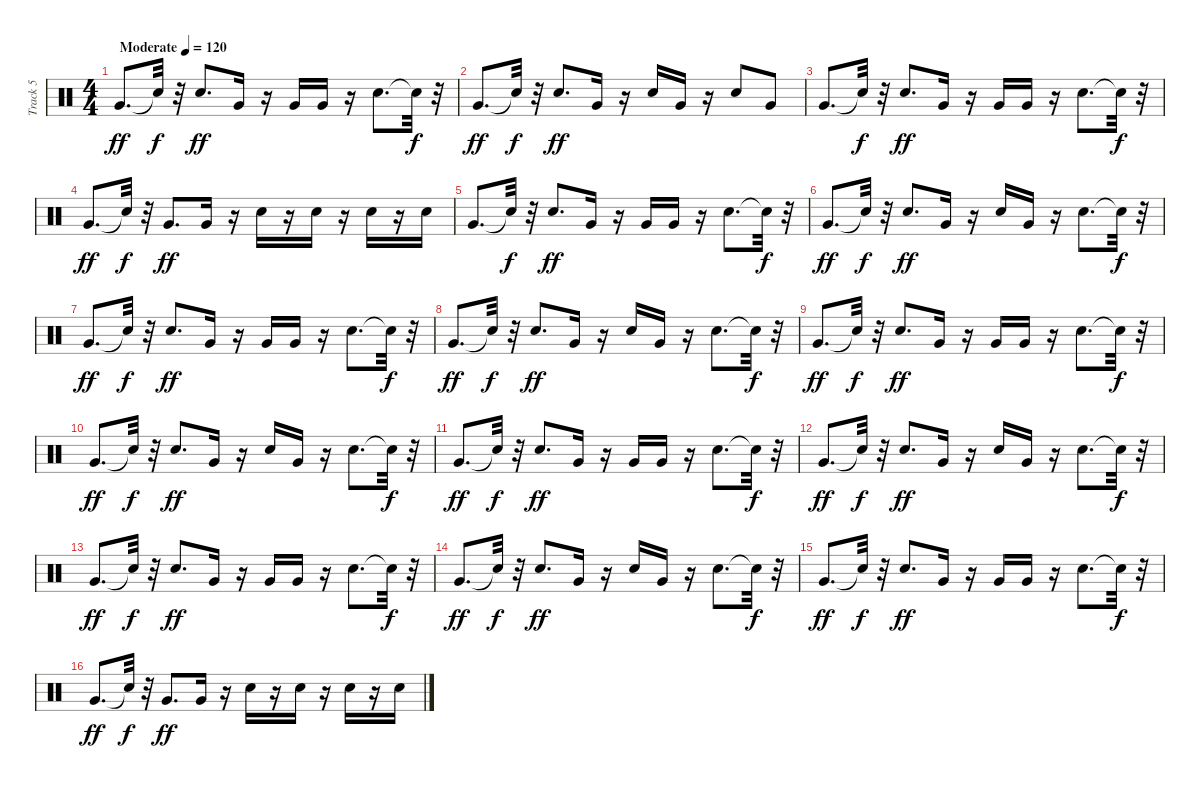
\track ("Track 5" "Track 5") {instrument percussion}
\staff {score}
\articulation defaults
\ts (4 4)
\tempo (120 "Moderate")
\clef neutral
\ks c "Very Low Tom (hit)".8{d dy ff} "Snare (hit)"{t}.32{dy f}
r.32 "Snare (hit) 2".8{d dy ff} "Very Low Tom (hit)".16 r.16 "Very Low Tom (hit)".16 "Very Low Tom (hit)".16 r.16 "Snare (hit) 2".8{d} "Snare (hit)"{t}.32{dy f} r.32 |
"Very Low Tom (hit)".8{d dy ff} "Snare (hit)"{t}.32{dy f} r.32 "Snare (hit) 2".8{d dy ff} "Very Low Tom (hit)".16 r.16 "Snare (hit) 2".16 "Very Low Tom (hit)".16 r.16 "Snare (hit) 2".8 "Very Low Tom (hit)".8 |
"Very Low Tom (hit)".8{d} "Snare (hit)"{t}.32{dy f} r.32 "Snare (hit) 2".8{d dy ff} "Very Low Tom (hit)".16 r.16 "Very Low Tom (hit)".16 "Very Low Tom (hit)".16 r.16 "Snare (hit) 2".8{d} "Snare (hit)"{t}.32{dy f} r.32 |
"Very Low Tom (hit)".8{d dy ff} "Snare (hit)"{t}.32{dy f} r.32 "Very Low Tom (hit)".8{d dy ff} "Very Low Tom (hit)".16 r.16 "Snare (hit) 2".16 r.16 "Snare (hit) 2".16 r.16 "Snare (hit) 2".16 r.16 "Snare (hit) 2".16 |
"Very Low Tom (hit)".8{d} "Snare (hit)"{t}.32{dy f} r.32 "Snare (hit) 2".8{d dy ff} "Very Low Tom (hit)".16 r.16 "Very Low Tom (hit)".16 "Very Low Tom (hit)".16 r.16 "Snare (hit) 2".8{d} "Snare (hit)"{t}.32{dy f} r.32 |
"Very Low Tom (hit)".8{d dy ff} "Snare (hit)"{t}.32{dy f} r.32 "Snare (hit) 2".8{d dy ff} "Very Low Tom (hit)".16 r.16 "Snare (hit) 2".16 "Very Low Tom (hit)".16 r.16 "Snare (hit) 2".8{d} "Snare (hit)"{t}.32{dy f} r.32 |
"Very Low Tom (hit)".8{d dy ff} "Snare (hit)"{t}.32{dy f} r.32 "Snare (hit) 2".8{d dy ff} "Very Low Tom (hit)".16 r.16 "Very Low Tom (hit)".16 "Very Low Tom (hit)".16 r.16 "Snare (hit) 2".8{d} "Snare (hit)"{t}.32{dy f} r.32 |
"Very Low Tom (hit)".8{d dy ff} "Snare (hit)"{t}.32{dy f} r.32 "Snare (hit) 2".8{d dy ff} "Very Low Tom (hit)".16 r.16 "Snare (hit) 2".16 "Very Low Tom (hit)".16 r.16 "Snare (hit) 2".8{d} "Snare (hit)"{t}.32{dy f} r.32 |
"Very Low Tom (hit)".8{d dy ff} "Snare (hit)"{t}.32{dy f} r.32 "Snare (hit) 2".8{d dy ff} "Very Low Tom (hit)".16 r.16 "Very Low Tom (hit)".16 "Very Low Tom (hit)".16 r.16 "Snare (hit) 2".8{d} "Snare (hit)"{t}.32{dy f} r.32 |
"Very Low Tom (hit)".8{d dy ff} "Snare (hit)"{t}.32{dy f} r.32 "Snare (hit) 2".8{d dy ff} "Very Low Tom (hit)".16 r.16 "Snare (hit) 2".16 "Very Low Tom (hit)".16 r.16 "Snare (hit) 2".8{d} "Snare (hit)"{t}.32{dy f} r.32 |
"Very Low Tom (hit)".8{d dy ff} "Snare (hit)"{t}.32{dy f} r.32 "Snare (hit) 2".8{d dy ff} "Very Low Tom (hit)".16 r.16 "Very Low Tom (hit)".16 "Very Low Tom (hit)".16 r.16 "Snare (hit) 2".8{d} "Snare (hit)"{t}.32{dy f} r.32 |
"Very Low Tom (hit)".8{d dy ff} "Snare (hit)"{t}.32{dy f} r.32 "Snare (hit) 2".8{d dy ff} "Very Low Tom (hit)".16 r.16 "Snare (hit) 2".16 "Very Low Tom (hit)".16 r.16 "Snare (hit) 2".8{d} "Snare (hit)"{t}.32{dy f} r.32 |
"Very Low Tom (hit)".8{d dy ff} "Snare (hit)"{t}.32{dy f} r.32 "Snare (hit) 2".8{d dy ff} "Very Low Tom (hit)".16 r.16 "Very Low Tom (hit)".16 "Very Low Tom (hit)".16 r.16 "Snare (hit) 2".8{d} "Snare (hit)"{t}.32{dy f} r.32 |
"Very Low Tom (hit)".8{d dy ff} "Snare (hit)"{t}.32{dy f} r.32 "Snare (hit) 2".8{d dy ff} "Very Low Tom (hit)".16 r.16 "Snare (hit) 2".16 "Very Low Tom (hit)".16 r.16 "Snare (hit) 2".8{d} "Snare (hit)"{t}.32{dy f} r.32 |
"Very Low Tom (hit)".8{d dy ff} "Snare (hit)"{t}.32{dy f} r.32 "Snare (hit) 2".8{d dy ff} "Very Low Tom (hit)".16 r.16 "Very Low Tom (hit)".16 "Very Low Tom (hit)".16 r.16 "Snare (hit) 2".8{d} "Snare (hit)"{t}.32{dy f} r.32 |
"Very Low Tom (hit)".8{d dy ff} "Snare (hit)"{t}.32{dy f} r.32 "Very Low Tom (hit)".8{d dy ff} "Very Low Tom (hit)".16 r.16 "Snare (hit) 2".16 r.16 "Snare (hit) 2".16 r.16 "Snare (hit) 2".16 r.16 "Snare (hit) 2".16
